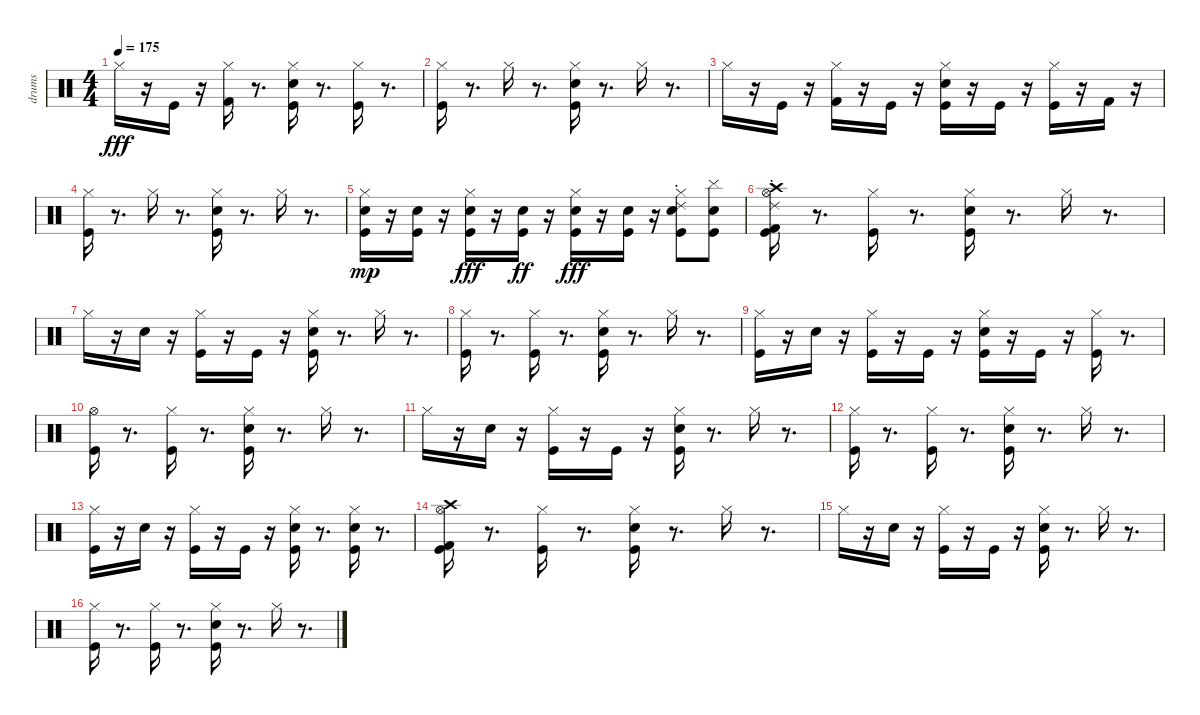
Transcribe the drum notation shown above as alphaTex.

\track ("drums" "drums") {instrument percussion}
\staff {score}
\articulation defaults
\ts (4 4)
\tempo 175
\clef neutral
\ks c "Hi-Hat (closed)".16{dy fff}
r.16 "Kick (hit)".16 r.16 ("Hi-Hat (closed)" "Kick (hit) 2").16 r.8{d} ("Hi-Hat (closed)" "Snare (hit) 2" "Kick (hit)").16 r.8{d} ("Hi-Hat (closed)" "Kick (hit)").16 r.8{d} |
("Hi-Hat (closed)" "Kick (hit)").16 r.8{d} "Hi-Hat (closed)".16 r.8{d} ("Hi-Hat (closed)" "Snare (hit) 2" "Kick (hit)").16 r.8{d} "Hi-Hat (closed)".16 r.8{d} |
"Hi-Hat (closed)".16 r.16 "Kick (hit)".16 r.16 ("Hi-Hat (closed)" "Kick (hit) 2").16 r.16 "Kick (hit)".16 r.16 ("Hi-Hat (closed)" "Snare (hit) 2" "Kick (hit)").16 r.16 "Kick (hit)".16 r.16 ("Hi-Hat (closed)" "Kick (hit)").16 r.16 "Kick (hit) 2".16 r.16 |
("Hi-Hat (closed)" "Kick (hit)").16 r.8{d} "Hi-Hat (closed)".16 r.8{d} ("Hi-Hat (closed)" "Snare (hit) 2" "Kick (hit)").16 r.8{d} "Hi-Hat (closed)".16 r.8{d} |
("Hi-Hat (closed)" "Kick (hit)" "Snare (hit) 2").16{dy mp} r.16 ("Kick (hit)" "Snare (hit) 2").16 r.16 ("Hi-Hat (closed)" "Kick (hit)" "Snare (hit) 2").16{dy fff} r.16 ("Kick (hit)" "Snare (hit) 2").16{dy ff} r.16 ("Hi-Hat (closed)" "Snare (hit) 2" "Kick (hit)").16{dy fff} r.16 ("Kick (hit)" "Snare (hit) 2").16 r.16 ("Hi-Hat (closed)" "Kick (hit)" "Snare (hit) 2" "Ride (choke) 2").8 ("Snare (hit) 2" "Kick (hit)" "Cymbal (hit)").8 |
("Kick (hit)" "Hi-Hat (open)" "Crash high (hit)" "Kick (hit) 2" "Ride (choke) 2").16 r.8{d} ("Kick (hit)" "Hi-Hat (closed)").16 r.8{d} ("Snare (hit) 2" "Kick (hit)" "Hi-Hat (closed)").16 r.8{d} "Hi-Hat (closed)".16 r.8{d} |
"Hi-Hat (closed)".16 r.16 "Snare (hit) 2".16 r.16 ("Hi-Hat (closed)" "Kick (hit)").16 r.16 "Kick (hit)".16 r.16 ("Hi-Hat (closed)" "Snare (hit) 2" "Kick (hit)").16 r.8{d} "Hi-Hat (closed)".16 r.8{d} |
("Kick (hit)" "Hi-Hat (closed)").16 r.8{d} ("Kick (hit)" "Hi-Hat (closed)").16 r.8{d} ("Snare (hit) 2" "Kick (hit)" "Hi-Hat (closed)").16 r.8{d} "Hi-Hat (closed)".16 r.8{d} |
("Hi-Hat (closed)" "Kick (hit)").16 r.16 "Snare (hit) 2".16 r.16 ("Hi-Hat (closed)" "Kick (hit)").16 r.16 "Kick (hit)".16 r.16 ("Hi-Hat (closed)" "Snare (hit) 2" "Kick (hit)").16 r.16 "Kick (hit)".16 r.16 ("Hi-Hat (closed)" "Kick (hit)").16 r.8{d} |
("Kick (hit)" "Hi-Hat (open)").16 r.8{d} ("Kick (hit)" "Hi-Hat (closed)").16 r.8{d} ("Snare (hit) 2" "Kick (hit)" "Hi-Hat (closed)").16 r.8{d} "Hi-Hat (closed)".16 r.8{d} |
"Hi-Hat (closed)".16 r.16 "Snare (hit) 2".16 r.16 ("Hi-Hat (closed)" "Kick (hit)").16 r.16 "Kick (hit)".16 r.16 ("Hi-Hat (closed)" "Snare (hit) 2" "Kick (hit)").16 r.8{d} "Hi-Hat (closed)".16 r.8{d} |
("Kick (hit)" "Hi-Hat (closed)").16 r.8{d} ("Kick (hit)" "Hi-Hat (closed)").16 r.8{d} ("Snare (hit) 2" "Kick (hit)" "Hi-Hat (closed)").16 r.8{d} "Hi-Hat (closed)".16 r.8{d} |
("Hi-Hat (closed)" "Kick (hit)").16 r.16 "Snare (hit) 2".16 r.16 ("Hi-Hat (closed)" "Kick (hit)").16 r.16 "Kick (hit)".16 r.16 ("Hi-Hat (closed)" "Snare (hit) 2" "Kick (hit)").16 r.8{d} ("Hi-Hat (closed)" "Kick (hit)" "Snare (hit) 2").16 r.8{d} |
("Kick (hit)" "Hi-Hat (open)" "Crash high (hit)" "Kick (hit) 2").16 r.8{d} ("Kick (hit)" "Hi-Hat (closed)").16 r.8{d} ("Snare (hit) 2" "Kick (hit)" "Hi-Hat (closed)").16 r.8{d} "Hi-Hat (closed)".16 r.8{d} |
"Hi-Hat (closed)".16 r.16 "Snare (hit) 2".16 r.16 ("Hi-Hat (closed)" "Kick (hit)").16 r.16 "Kick (hit)".16 r.16 ("Hi-Hat (closed)" "Snare (hit) 2" "Kick (hit)").16 r.8{d} "Hi-Hat (closed)".16 r.8{d} |
("Kick (hit)" "Hi-Hat (closed)").16 r.8{d} ("Kick (hit)" "Hi-Hat (closed)").16 r.8{d} ("Snare (hit) 2" "Kick (hit)" "Hi-Hat (closed)").16 r.8{d} "Hi-Hat (closed)".16 r.8{d}
